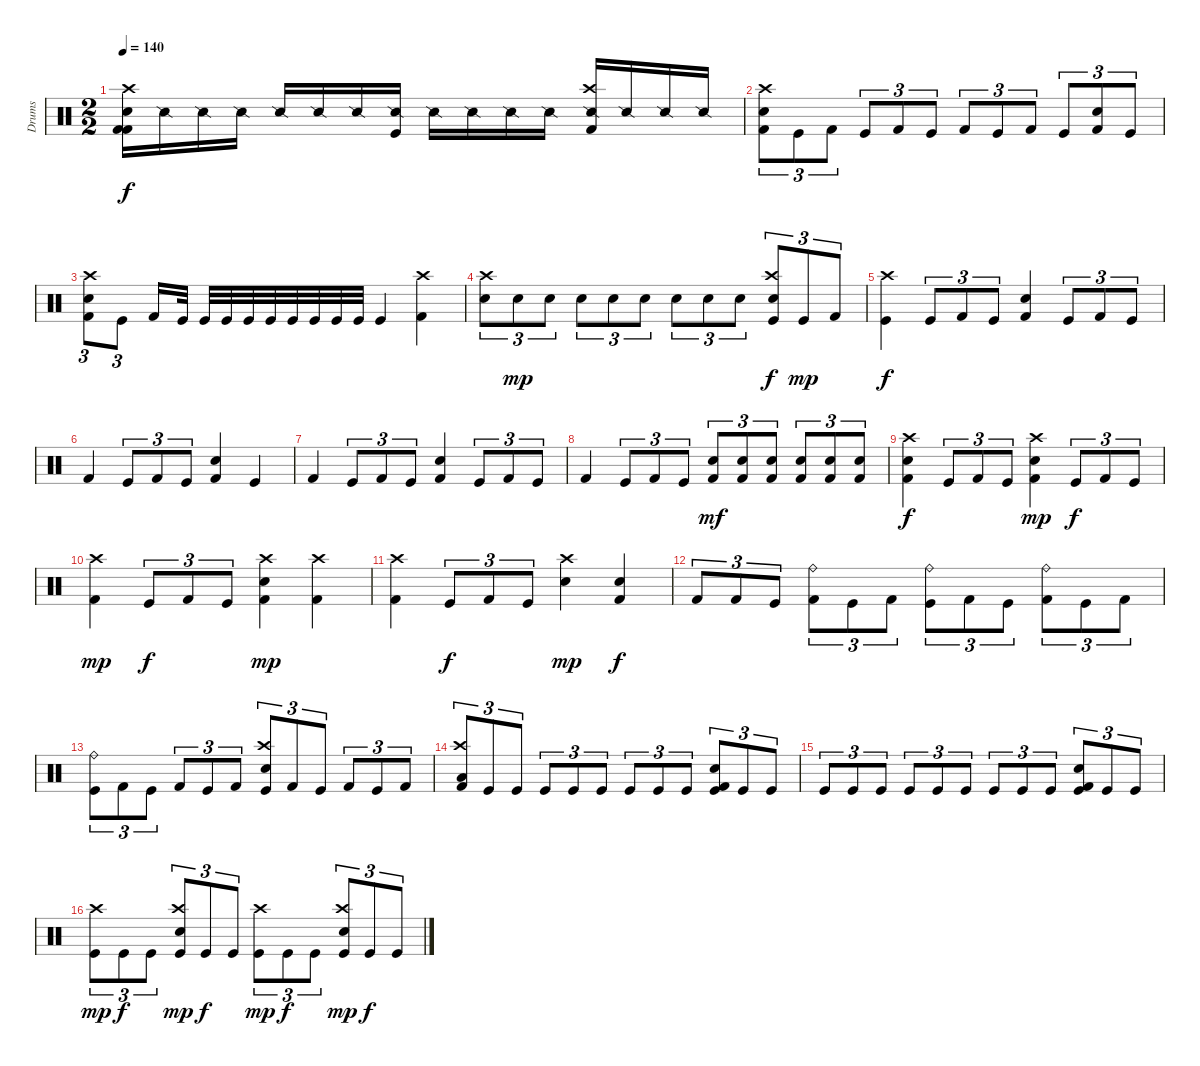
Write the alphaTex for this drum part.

\track ("Drums" "Drums") {instrument percussion}
\staff {score}
\articulation defaults
\ts (2 2)
\tempo 140
\clef neutral
\ks c
("Kick (hit) 2" "Snare (hit) 2" "Crash high (hit)" "Kick (hit) 2").16{dy f} "Snare (side stick) 2".16 "Snare (side stick) 2".16 "Snare (side stick) 2".16 "Snare (side stick) 2".16 "Snare (side stick) 2".16 "Snare (side stick) 2".16 ("Snare (side stick) 2" "Kick (hit)").16 "Snare (side stick) 2".16 "Snare (side stick) 2".16 "Snare (side stick) 2".16 "Snare (side stick) 2".16 ("Snare (side stick) 2" "Kick (hit) 2" "Crash high (hit)").16 "Snare (side stick) 2".16 "Snare (side stick) 2".16 "Snare (side stick) 2".16 |
("Snare (hit) 2" "Kick (hit) 2" "Crash high (hit)").8{tu (3 2)} "Kick (hit)".8{tu (3 2)} "Kick (hit) 2".8{tu (3 2)} "Kick (hit)".8{tu (3 2)} "Kick (hit) 2".8{tu (3 2)} "Kick (hit)".8{tu (3 2)} "Kick (hit) 2".8{tu (3 2)} "Kick (hit)".8{tu (3 2)} "Kick (hit) 2".8{tu (3 2)} "Kick (hit)".8{tu (3 2)} ("Kick (hit) 2" "Snare (hit) 2").8{tu (3 2)} "Kick (hit)".8{tu (3 2)} |
("Snare (hit) 2" "Kick (hit) 2" "Crash high (hit)").8{tu (3 2)} "Kick (hit)".8{tu (3 2)} "Kick (hit) 2".16 "Kick (hit)".32 "Kick (hit)".32 "Kick (hit)".32 "Kick (hit)".32 "Kick (hit)".32 "Kick (hit)".32 "Kick (hit)".32 "Kick (hit)".32 "Kick (hit)".32 "Kick (hit)".4 ("Kick (hit) 2" "Crash high (hit)").4 |
("Snare (hit) 2" "Crash high (hit)").8{tu (3 2)} "Snare (hit) 2".8{tu (3 2) dy mp} "Snare (hit) 2".8{tu (3 2)} "Snare (hit) 2".8{tu (3 2)} "Snare (hit) 2".8{tu (3 2)} "Snare (hit) 2".8{tu (3 2)} "Snare (hit) 2".8{tu (3 2)} "Snare (hit) 2".8{tu (3 2)} "Snare (hit) 2".8{tu (3 2)} ("Kick (hit)" "Snare (hit) 2" "Crash high (hit)").8{tu (3 2) dy f} "Kick (hit)".8{tu (3 2) dy mp} "Kick (hit) 2".8{tu (3 2)} |
("Kick (hit)" "Crash high (hit)").4{dy f} "Kick (hit)".8{tu (3 2)} "Kick (hit) 2".8{tu (3 2)} "Kick (hit)".8{tu (3 2)} ("Kick (hit) 2" "Snare (hit) 2").4 "Kick (hit)".8{tu (3 2)} "Kick (hit) 2".8{tu (3 2)} "Kick (hit)".8{tu (3 2)} |
"Kick (hit) 2".4 "Kick (hit)".8{tu (3 2)} "Kick (hit) 2".8{tu (3 2)} "Kick (hit)".8{tu (3 2)} ("Kick (hit) 2" "Snare (hit) 2").4 "Kick (hit)".4 |
"Kick (hit) 2".4 "Kick (hit)".8{tu (3 2)} "Kick (hit) 2".8{tu (3 2)} "Kick (hit)".8{tu (3 2)} ("Kick (hit) 2" "Snare (hit) 2").4 "Kick (hit)".8{tu (3 2)} "Kick (hit) 2".8{tu (3 2)} "Kick (hit)".8{tu (3 2)} |
"Kick (hit) 2".4 "Kick (hit)".8{tu (3 2)} "Kick (hit) 2".8{tu (3 2)} "Kick (hit)".8{tu (3 2)} ("Snare (hit) 2" "Kick (hit) 2").8{tu (3 2) dy mf} ("Snare (hit) 2" "Kick (hit) 2").8{tu (3 2)} ("Snare (hit) 2" "Kick (hit) 2").8{tu (3 2)} ("Snare (hit) 2" "Kick (hit) 2").8{tu (3 2)} ("Snare (hit) 2" "Kick (hit) 2").8{tu (3 2)} ("Snare (hit) 2" "Kick (hit) 2").8{tu (3 2)} |
("Snare (hit) 2" "Kick (hit) 2" "Crash high (hit)").4{dy f} "Kick (hit)".8{tu (3 2)} "Kick (hit) 2".8{tu (3 2)} "Kick (hit)".8{tu (3 2)} ("Kick (hit) 2" "Snare (hit) 2" "Crash high (hit)").4{dy mp} "Kick (hit)".8{tu (3 2) dy f} "Kick (hit) 2".8{tu (3 2)} "Kick (hit)".8{tu (3 2)} |
("Kick (hit) 2" "Crash high (hit)").4{dy mp} "Kick (hit)".8{tu (3 2) dy f} "Kick (hit) 2".8{tu (3 2)} "Kick (hit)".8{tu (3 2)} ("Kick (hit) 2" "Snare (hit) 2" "Crash high (hit)").4{dy mp} ("Kick (hit) 2" "Crash high (hit)").4 |
("Kick (hit) 2" "Crash high (hit)").4 "Kick (hit)".8{tu (3 2) dy f} "Kick (hit) 2".8{tu (3 2)} "Kick (hit)".8{tu (3 2)} ("Snare (hit) 2" "Crash high (hit)").4{dy mp} ("Snare (hit) 2" "Kick (hit) 2").4{dy f} |
"Kick (hit) 2".8{tu (3 2)} "Kick (hit) 2".8{tu (3 2)} "Kick (hit)".8{tu (3 2)} ("Kick (hit) 2" "Ride (bell)").8{tu (3 2)} "Kick (hit)".8{tu (3 2)} "Kick (hit) 2".8{tu (3 2)} ("Kick (hit)" "Ride (bell)").8{tu (3 2)} "Kick (hit) 2".8{tu (3 2)} "Kick (hit)".8{tu (3 2)} ("Kick (hit) 2" "Ride (bell)").8{tu (3 2)} "Kick (hit)".8{tu (3 2)} "Kick (hit) 2".8{tu (3 2)} |
("Kick (hit)" "Ride (bell)").8{tu (3 2)} "Kick (hit) 2".8{tu (3 2)} "Kick (hit)".8{tu (3 2)} "Kick (hit) 2".8{tu (3 2)} "Kick (hit)".8{tu (3 2)} "Kick (hit) 2".8{tu (3 2)} ("Kick (hit)" "Snare (hit) 2" "Crash high (hit)").8{tu (3 2)} "Kick (hit) 2".8{tu (3 2)} "Kick (hit)".8{tu (3 2)} "Kick (hit) 2".8{tu (3 2)} "Kick (hit)".8{tu (3 2)} "Kick (hit) 2".8{tu (3 2)} |
("Low Floor Tom (hit)" "Kick (hit) 2" "Crash high (hit)").8{tu (3 2)} "Kick (hit)".8{tu (3 2)} "Kick (hit)".8{tu (3 2)} "Kick (hit)".8{tu (3 2)} "Kick (hit)".8{tu (3 2)} "Kick (hit)".8{tu (3 2)} "Kick (hit)".8{tu (3 2)} "Kick (hit)".8{tu (3 2)} "Kick (hit)".8{tu (3 2)} ("Kick (hit)" "Snare (hit) 2" "Kick (hit) 2").8{tu (3 2)} "Kick (hit)".8{tu (3 2)} "Kick (hit)".8{tu (3 2)} |
"Kick (hit)".8{tu (3 2)} "Kick (hit)".8{tu (3 2)} "Kick (hit)".8{tu (3 2)} "Kick (hit)".8{tu (3 2)} "Kick (hit)".8{tu (3 2)} "Kick (hit)".8{tu (3 2)} "Kick (hit)".8{tu (3 2)} "Kick (hit)".8{tu (3 2)} "Kick (hit)".8{tu (3 2)} ("Kick (hit)" "Kick (hit) 2" "Snare (hit) 2").8{tu (3 2)} "Kick (hit)".8{tu (3 2)} "Kick (hit)".8{tu (3 2)} |
("Kick (hit)" "Crash high (hit)").8{tu (3 2) dy mp} "Kick (hit)".8{tu (3 2) dy f} "Kick (hit)".8{tu (3 2)} ("Kick (hit)" "Crash high (hit)" "Snare (hit) 2").8{tu (3 2) dy mp} "Kick (hit)".8{tu (3 2) dy f} "Kick (hit)".8{tu (3 2)} ("Kick (hit)" "Crash high (hit)").8{tu (3 2) dy mp} "Kick (hit)".8{tu (3 2) dy f} "Kick (hit)".8{tu (3 2)} ("Kick (hit)" "Crash high (hit)" "Snare (hit) 2").8{tu (3 2) dy mp} "Kick (hit)".8{tu (3 2) dy f} "Kick (hit)".8{tu (3 2)}
